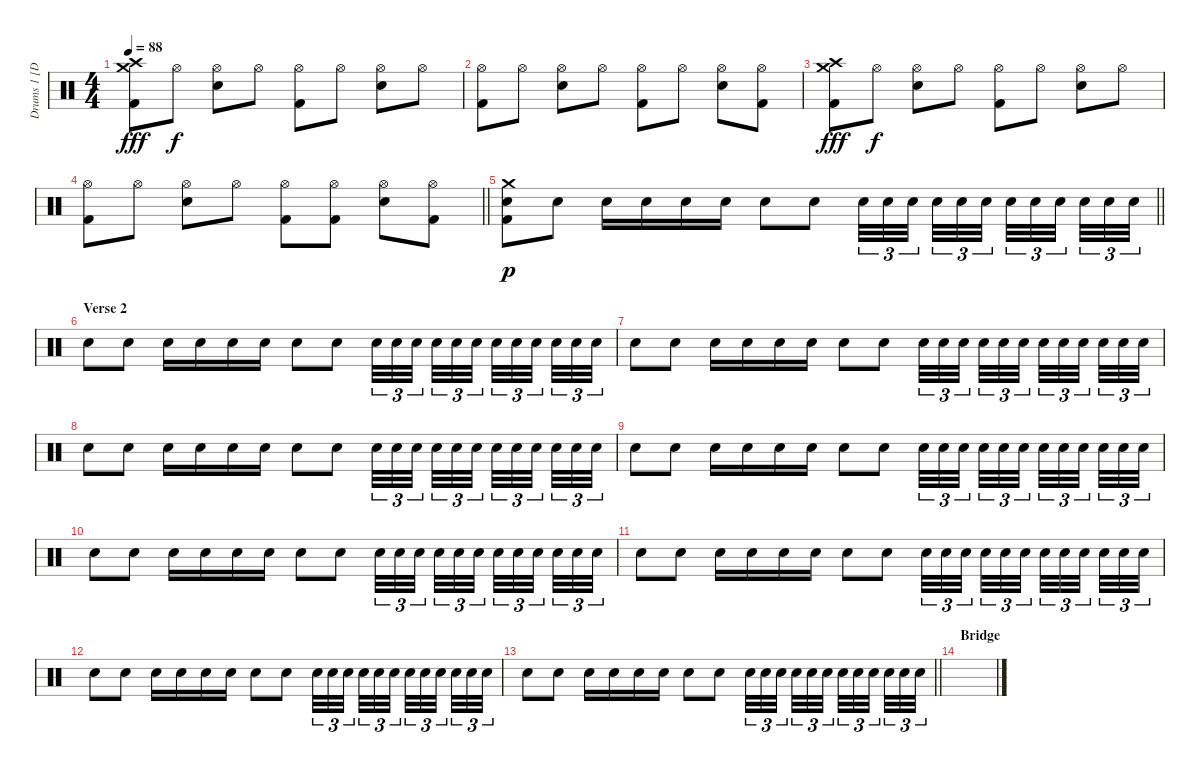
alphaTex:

\track ("Drums 1 [Doom]" "Drums 1 [D") {instrument percussion}
\staff {score}
\articulation defaults
\ts (4 4)
\tempo 88
\clef neutral
\ks c
("Crash medium (hit)" "Crash high (hit)" "Kick (hit) 2").8{dy fff} "Hi-Hat (open)".8{dy f} ("Hi-Hat (open)" "Electric Snare (hit)").8 "Hi-Hat (open)".8 ("Hi-Hat (open)" "Kick (hit) 2").8 "Hi-Hat (open)".8 ("Hi-Hat (open)" "Electric Snare (hit)").8 "Hi-Hat (open)".8 |
("Hi-Hat (open)" "Kick (hit) 2").8 "Hi-Hat (open)".8 ("Hi-Hat (open)" "Electric Snare (hit)").8 "Hi-Hat (open)".8 ("Hi-Hat (open)" "Kick (hit) 2").8 "Hi-Hat (open)".8 ("Hi-Hat (open)" "Electric Snare (hit)").8 ("Hi-Hat (open)" "Kick (hit) 2").8 |
("Crash medium (hit)" "Crash high (hit)" "Kick (hit) 2").8{dy fff} "Hi-Hat (open)".8{dy f} ("Hi-Hat (open)" "Electric Snare (hit)").8 "Hi-Hat (open)".8 ("Hi-Hat (open)" "Kick (hit) 2").8 "Hi-Hat (open)".8 ("Hi-Hat (open)" "Electric Snare (hit)").8 "Hi-Hat (open)".8 |
\barLineRight lightlight
("Hi-Hat (open)" "Kick (hit) 2").8 "Hi-Hat (open)".8 ("Hi-Hat (open)" "Electric Snare (hit)").8 "Hi-Hat (open)".8 ("Hi-Hat (open)" "Kick (hit) 2").8 ("Hi-Hat (open)" "Kick (hit) 2").8 ("Hi-Hat (open)" "Electric Snare (hit)").8 ("Hi-Hat (open)" "Kick (hit) 2").8 |
\barLineRight lightlight
("Crash medium (hit)" "Electric Snare (hit)" "Kick (hit) 2").8{dy p} "Electric Snare (hit)".8 "Electric Snare (hit)".16 "Electric Snare (hit)".16 "Electric Snare (hit)".16 "Electric Snare (hit)".16 "Electric Snare (hit)".8 "Electric Snare (hit)".8 "Electric Snare (hit)".32{tu (3 2)} "Electric Snare (hit)".32{tu (3 2)} "Electric Snare (hit)".32{tu (3 2)} "Electric Snare (hit)".32{tu (3 2)} "Electric Snare (hit)".32{tu (3 2)} "Electric Snare (hit)".32{tu (3 2)} "Electric Snare (hit)".32{tu (3 2)} "Electric Snare (hit)".32{tu (3 2)} "Electric Snare (hit)".32{tu (3 2)} "Electric Snare (hit)".32{tu (3 2)} "Electric Snare (hit)".32{tu (3 2)} "Electric Snare (hit)".32{tu (3 2)} |
\section ("" "Verse 2")
"Electric Snare (hit)".8 "Electric Snare (hit)".8 "Electric Snare (hit)".16 "Electric Snare (hit)".16 "Electric Snare (hit)".16 "Electric Snare (hit)".16 "Electric Snare (hit)".8 "Electric Snare (hit)".8 "Electric Snare (hit)".32{tu (3 2)} "Electric Snare (hit)".32{tu (3 2)} "Electric Snare (hit)".32{tu (3 2)} "Electric Snare (hit)".32{tu (3 2)} "Electric Snare (hit)".32{tu (3 2)} "Electric Snare (hit)".32{tu (3 2)} "Electric Snare (hit)".32{tu (3 2)} "Electric Snare (hit)".32{tu (3 2)} "Electric Snare (hit)".32{tu (3 2)} "Electric Snare (hit)".32{tu (3 2)} "Electric Snare (hit)".32{tu (3 2)} "Electric Snare (hit)".32{tu (3 2)} |
"Electric Snare (hit)".8 "Electric Snare (hit)".8 "Electric Snare (hit)".16 "Electric Snare (hit)".16 "Electric Snare (hit)".16 "Electric Snare (hit)".16 "Electric Snare (hit)".8 "Electric Snare (hit)".8 "Electric Snare (hit)".32{tu (3 2)} "Electric Snare (hit)".32{tu (3 2)} "Electric Snare (hit)".32{tu (3 2)} "Electric Snare (hit)".32{tu (3 2)} "Electric Snare (hit)".32{tu (3 2)} "Electric Snare (hit)".32{tu (3 2)} "Electric Snare (hit)".32{tu (3 2)} "Electric Snare (hit)".32{tu (3 2)} "Electric Snare (hit)".32{tu (3 2)} "Electric Snare (hit)".32{tu (3 2)} "Electric Snare (hit)".32{tu (3 2)} "Electric Snare (hit)".32{tu (3 2)} |
"Electric Snare (hit)".8 "Electric Snare (hit)".8 "Electric Snare (hit)".16 "Electric Snare (hit)".16 "Electric Snare (hit)".16 "Electric Snare (hit)".16 "Electric Snare (hit)".8 "Electric Snare (hit)".8 "Electric Snare (hit)".32{tu (3 2)} "Electric Snare (hit)".32{tu (3 2)} "Electric Snare (hit)".32{tu (3 2)} "Electric Snare (hit)".32{tu (3 2)} "Electric Snare (hit)".32{tu (3 2)} "Electric Snare (hit)".32{tu (3 2)} "Electric Snare (hit)".32{tu (3 2)} "Electric Snare (hit)".32{tu (3 2)} "Electric Snare (hit)".32{tu (3 2)} "Electric Snare (hit)".32{tu (3 2)} "Electric Snare (hit)".32{tu (3 2)} "Electric Snare (hit)".32{tu (3 2)} |
"Electric Snare (hit)".8 "Electric Snare (hit)".8 "Electric Snare (hit)".16 "Electric Snare (hit)".16 "Electric Snare (hit)".16 "Electric Snare (hit)".16 "Electric Snare (hit)".8 "Electric Snare (hit)".8 "Electric Snare (hit)".32{tu (3 2)} "Electric Snare (hit)".32{tu (3 2)} "Electric Snare (hit)".32{tu (3 2)} "Electric Snare (hit)".32{tu (3 2)} "Electric Snare (hit)".32{tu (3 2)} "Electric Snare (hit)".32{tu (3 2)} "Electric Snare (hit)".32{tu (3 2)} "Electric Snare (hit)".32{tu (3 2)} "Electric Snare (hit)".32{tu (3 2)} "Electric Snare (hit)".32{tu (3 2)} "Electric Snare (hit)".32{tu (3 2)} "Electric Snare (hit)".32{tu (3 2)} |
"Electric Snare (hit)".8 "Electric Snare (hit)".8 "Electric Snare (hit)".16 "Electric Snare (hit)".16 "Electric Snare (hit)".16 "Electric Snare (hit)".16 "Electric Snare (hit)".8 "Electric Snare (hit)".8 "Electric Snare (hit)".32{tu (3 2)} "Electric Snare (hit)".32{tu (3 2)} "Electric Snare (hit)".32{tu (3 2)} "Electric Snare (hit)".32{tu (3 2)} "Electric Snare (hit)".32{tu (3 2)} "Electric Snare (hit)".32{tu (3 2)} "Electric Snare (hit)".32{tu (3 2)} "Electric Snare (hit)".32{tu (3 2)} "Electric Snare (hit)".32{tu (3 2)} "Electric Snare (hit)".32{tu (3 2)} "Electric Snare (hit)".32{tu (3 2)} "Electric Snare (hit)".32{tu (3 2)} |
"Electric Snare (hit)".8 "Electric Snare (hit)".8 "Electric Snare (hit)".16 "Electric Snare (hit)".16 "Electric Snare (hit)".16 "Electric Snare (hit)".16 "Electric Snare (hit)".8 "Electric Snare (hit)".8 "Electric Snare (hit)".32{tu (3 2)} "Electric Snare (hit)".32{tu (3 2)} "Electric Snare (hit)".32{tu (3 2)} "Electric Snare (hit)".32{tu (3 2)} "Electric Snare (hit)".32{tu (3 2)} "Electric Snare (hit)".32{tu (3 2)} "Electric Snare (hit)".32{tu (3 2)} "Electric Snare (hit)".32{tu (3 2)} "Electric Snare (hit)".32{tu (3 2)} "Electric Snare (hit)".32{tu (3 2)} "Electric Snare (hit)".32{tu (3 2)} "Electric Snare (hit)".32{tu (3 2)} |
"Electric Snare (hit)".8 "Electric Snare (hit)".8 "Electric Snare (hit)".16 "Electric Snare (hit)".16 "Electric Snare (hit)".16 "Electric Snare (hit)".16 "Electric Snare (hit)".8 "Electric Snare (hit)".8 "Electric Snare (hit)".32{tu (3 2)} "Electric Snare (hit)".32{tu (3 2)} "Electric Snare (hit)".32{tu (3 2)} "Electric Snare (hit)".32{tu (3 2)} "Electric Snare (hit)".32{tu (3 2)} "Electric Snare (hit)".32{tu (3 2)} "Electric Snare (hit)".32{tu (3 2)} "Electric Snare (hit)".32{tu (3 2)} "Electric Snare (hit)".32{tu (3 2)} "Electric Snare (hit)".32{tu (3 2)} "Electric Snare (hit)".32{tu (3 2)} "Electric Snare (hit)".32{tu (3 2)} |
\barLineRight lightlight "Electric Snare (hit)".8 "Electric Snare (hit)".8 "Electric Snare (hit)".16 "Electric Snare (hit)".16 "Electric Snare (hit)".16 "Electric Snare (hit)".16 "Electric Snare (hit)".8 "Electric Snare (hit)".8 "Electric Snare (hit)".32{tu (3 2)} "Electric Snare (hit)".32{tu (3 2)} "Electric Snare (hit)".32{tu (3 2)} "Electric Snare (hit)".32{tu (3 2)} "Electric Snare (hit)".32{tu (3 2)} "Electric Snare (hit)".32{tu (3 2)} "Electric Snare (hit)".32{tu (3 2)} "Electric Snare (hit)".32{tu (3 2)} "Electric Snare (hit)".32{tu (3 2)} "Electric Snare (hit)".32{tu (3 2)} "Electric Snare (hit)".32{tu (3 2)} "Electric Snare (hit)".32{tu (3 2)}
|
\section ("" "Bridge")
